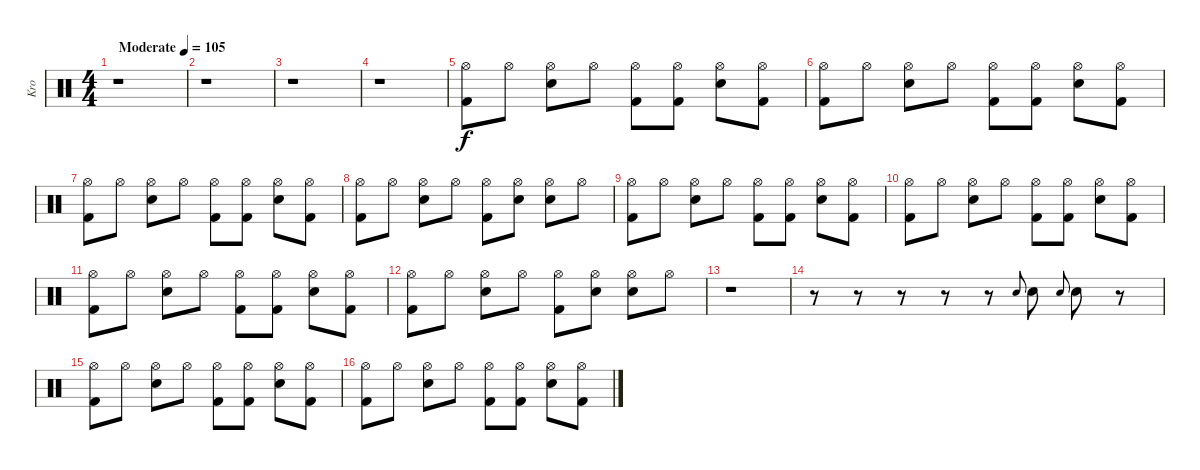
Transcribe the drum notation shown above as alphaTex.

\track ("Kro" "Kro") {instrument percussion}
\staff {score}
\articulation defaults
\ts (4 4)
\tempo (105 "Moderate")
\clef neutral
\ks c
r.1{dy f} |
r.1 |
r.1 |
r.1 |
("Hi-Hat (open)" "Kick (hit) 2").8 "Hi-Hat (open)".8 ("Hi-Hat (open)" "Electric Snare (hit)").8 "Hi-Hat (open)".8 ("Hi-Hat (open)" "Kick (hit) 2").8 ("Hi-Hat (open)" "Kick (hit) 2").8 ("Hi-Hat (open)" "Electric Snare (hit)").8 ("Hi-Hat (open)" "Kick (hit) 2").8 |
("Hi-Hat (open)" "Kick (hit) 2").8 "Hi-Hat (open)".8 ("Hi-Hat (open)" "Electric Snare (hit)").8 "Hi-Hat (open)".8 ("Hi-Hat (open)" "Kick (hit) 2").8 ("Hi-Hat (open)" "Kick (hit) 2").8 ("Hi-Hat (open)" "Electric Snare (hit)").8 ("Hi-Hat (open)" "Kick (hit) 2").8 |
("Hi-Hat (open)" "Kick (hit) 2").8 "Hi-Hat (open)".8 ("Hi-Hat (open)" "Electric Snare (hit)").8 "Hi-Hat (open)".8 ("Hi-Hat (open)" "Kick (hit) 2").8 ("Hi-Hat (open)" "Kick (hit) 2").8 ("Hi-Hat (open)" "Electric Snare (hit)").8 ("Hi-Hat (open)" "Kick (hit) 2").8 |
("Hi-Hat (open)" "Kick (hit) 2").8 "Hi-Hat (open)".8 ("Hi-Hat (open)" "Electric Snare (hit)").8 "Hi-Hat (open)".8 ("Hi-Hat (open)" "Kick (hit) 2").8 ("Hi-Hat (open)" "Electric Snare (hit)").8 ("Hi-Hat (open)" "Electric Snare (hit)").8 "Hi-Hat (open)".8 |
("Hi-Hat (open)" "Kick (hit) 2").8 "Hi-Hat (open)".8 ("Hi-Hat (open)" "Electric Snare (hit)").8 "Hi-Hat (open)".8 ("Hi-Hat (open)" "Kick (hit) 2").8 ("Hi-Hat (open)" "Kick (hit) 2").8 ("Hi-Hat (open)" "Electric Snare (hit)").8 ("Hi-Hat (open)" "Kick (hit) 2").8 |
("Hi-Hat (open)" "Kick (hit) 2").8 "Hi-Hat (open)".8 ("Hi-Hat (open)" "Electric Snare (hit)").8 "Hi-Hat (open)".8 ("Hi-Hat (open)" "Kick (hit) 2").8 ("Hi-Hat (open)" "Kick (hit) 2").8 ("Hi-Hat (open)" "Electric Snare (hit)").8 ("Hi-Hat (open)" "Kick (hit) 2").8 |
("Hi-Hat (open)" "Kick (hit) 2").8 "Hi-Hat (open)".8 ("Hi-Hat (open)" "Electric Snare (hit)").8 "Hi-Hat (open)".8 ("Hi-Hat (open)" "Kick (hit) 2").8 ("Hi-Hat (open)" "Kick (hit) 2").8 ("Hi-Hat (open)" "Electric Snare (hit)").8 ("Hi-Hat (open)" "Kick (hit) 2").8 |
("Hi-Hat (open)" "Kick (hit) 2").8 "Hi-Hat (open)".8 ("Hi-Hat (open)" "Electric Snare (hit)").8 "Hi-Hat (open)".8 ("Hi-Hat (open)" "Kick (hit) 2").8 ("Hi-Hat (open)" "Electric Snare (hit)").8 ("Hi-Hat (open)" "Electric Snare (hit)").8 "Hi-Hat (open)".8 |
r.1 |
r.8 r.8 r.8 r.8 r.8 "Electric Snare (hit)".8{gr onbeat} "Electric Snare (hit)".8 "Electric Snare (hit)".8{gr onbeat} "Electric Snare (hit)".8 r.8 |
("Hi-Hat (open)" "Kick (hit) 2").8 "Hi-Hat (open)".8 ("Hi-Hat (open)" "Electric Snare (hit)").8 "Hi-Hat (open)".8 ("Hi-Hat (open)" "Kick (hit) 2").8 ("Hi-Hat (open)" "Kick (hit) 2").8 ("Hi-Hat (open)" "Electric Snare (hit)").8 ("Hi-Hat (open)" "Kick (hit) 2").8 |
("Hi-Hat (open)" "Kick (hit) 2").8 "Hi-Hat (open)".8 ("Hi-Hat (open)" "Electric Snare (hit)").8 "Hi-Hat (open)".8 ("Hi-Hat (open)" "Kick (hit) 2").8 ("Hi-Hat (open)" "Kick (hit) 2").8 ("Hi-Hat (open)" "Electric Snare (hit)").8 ("Hi-Hat (open)" "Kick (hit) 2").8
